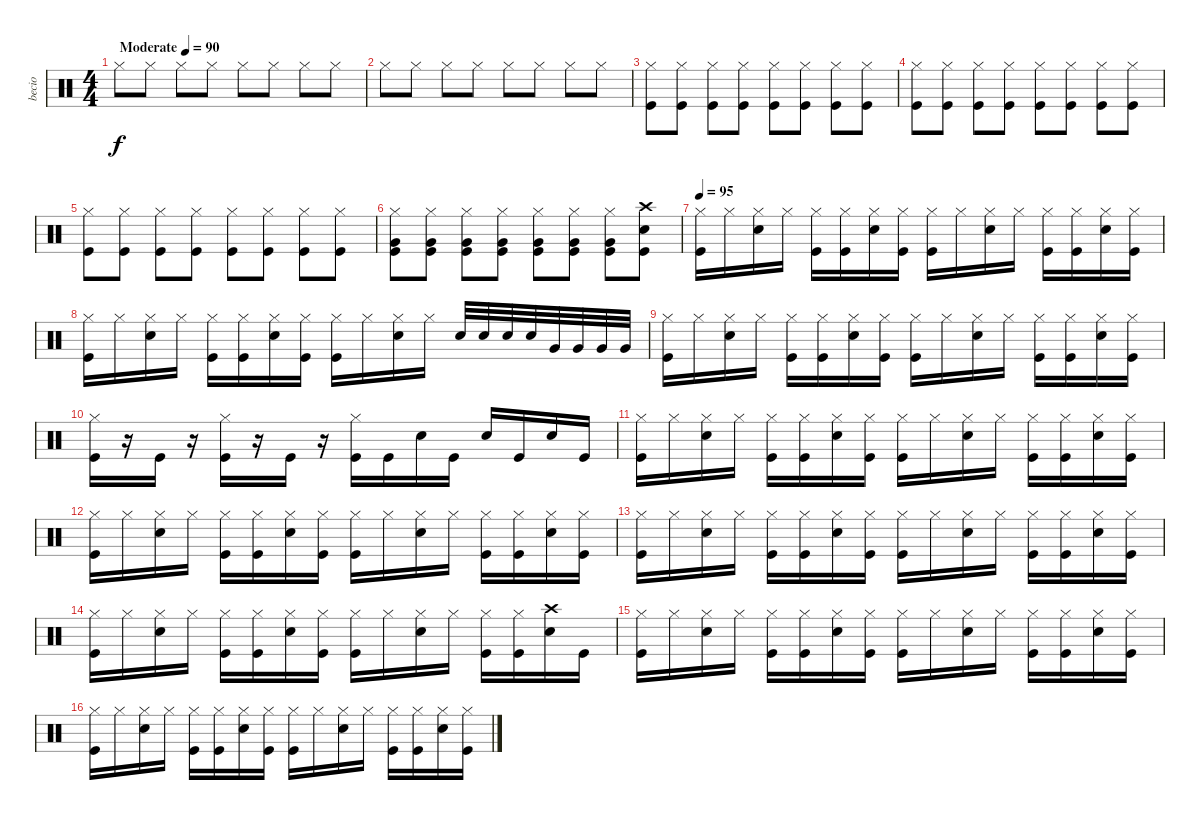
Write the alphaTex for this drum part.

\track ("becio" "becio") {instrument percussion}
\staff {score}
\articulation defaults
\ts (4 4)
\tempo (90 "Moderate")
\clef neutral
\ks c "Hi-Hat (closed)".8{dy f} "Hi-Hat (closed)".8 "Hi-Hat (closed)".8 "Hi-Hat (closed)".8 "Hi-Hat (closed)".8 "Hi-Hat (closed)".8 "Hi-Hat (closed)".8 "Hi-Hat (closed)".8
|
"Hi-Hat (closed)".8 "Hi-Hat (closed)".8 "Hi-Hat (closed)".8 "Hi-Hat (closed)".8 "Hi-Hat (closed)".8 "Hi-Hat (closed)".8 "Hi-Hat (closed)".8 "Hi-Hat (closed)".8 |
("Kick (hit)" "Hi-Hat (closed)").8 ("Kick (hit)" "Hi-Hat (closed)").8 ("Kick (hit)" "Hi-Hat (closed)").8 ("Kick (hit)" "Hi-Hat (closed)").8 ("Kick (hit)" "Hi-Hat (closed)").8 ("Kick (hit)" "Hi-Hat (closed)").8 ("Kick (hit)" "Hi-Hat (closed)").8 ("Kick (hit)" "Hi-Hat (closed)").8 |
("Kick (hit)" "Hi-Hat (closed)").8 ("Kick (hit)" "Hi-Hat (closed)").8 ("Kick (hit)" "Hi-Hat (closed)").8 ("Kick (hit)" "Hi-Hat (closed)").8 ("Kick (hit)" "Hi-Hat (closed)").8 ("Kick (hit)" "Hi-Hat (closed)").8 ("Kick (hit)" "Hi-Hat (closed)").8 ("Kick (hit)" "Hi-Hat (closed)").8 |
("Kick (hit)" "Hi-Hat (closed)").8 ("Kick (hit)" "Hi-Hat (closed)").8 ("Kick (hit)" "Hi-Hat (closed)").8 ("Kick (hit)" "Hi-Hat (closed)").8 ("Kick (hit)" "Hi-Hat (closed)").8 ("Kick (hit)" "Hi-Hat (closed)").8 ("Kick (hit)" "Hi-Hat (closed)").8 ("Kick (hit)" "Hi-Hat (closed)").8 |
("Kick (hit)" "Very Low Tom (hit)" "Hi-Hat (closed)").8 ("Kick (hit)" "Very Low Tom (hit)" "Hi-Hat (closed)").8 ("Kick (hit)" "Very Low Tom (hit)" "Hi-Hat (closed)").8 ("Kick (hit)" "Very Low Tom (hit)" "Hi-Hat (closed)").8 ("Kick (hit)" "Very Low Tom (hit)" "Hi-Hat (closed)").8 ("Kick (hit)" "Very Low Tom (hit)" "Hi-Hat (closed)").8 ("Kick (hit)" "Very Low Tom (hit)" "Hi-Hat (closed)").8 ("Kick (hit)" "Electric Snare (hit)" "Crash high (hit)").8 |
\tempo 95
("Kick (hit)" "Hi-Hat (closed)").16 "Hi-Hat (closed)".16 ("Electric Snare (hit)" "Hi-Hat (closed)").16 "Hi-Hat (closed)".16 ("Kick (hit)" "Hi-Hat (closed)").16 ("Kick (hit)" "Hi-Hat (closed)").16 ("Electric Snare (hit)" "Hi-Hat (closed)").16 ("Kick (hit)" "Hi-Hat (closed)").16 ("Kick (hit)" "Hi-Hat (closed)").16 "Hi-Hat (closed)".16 ("Electric Snare (hit)" "Hi-Hat (closed)").16 "Hi-Hat (closed)".16 ("Kick (hit)" "Hi-Hat (closed)").16 ("Kick (hit)" "Hi-Hat (closed)").16 ("Electric Snare (hit)" "Hi-Hat (closed)").16 ("Kick (hit)" "Hi-Hat (closed)").16 |
("Kick (hit)" "Hi-Hat (closed)").16 "Hi-Hat (closed)".16 ("Electric Snare (hit)" "Hi-Hat (closed)").16 "Hi-Hat (closed)".16 ("Kick (hit)" "Hi-Hat (closed)").16 ("Kick (hit)" "Hi-Hat (closed)").16 ("Electric Snare (hit)" "Hi-Hat (closed)").16 ("Kick (hit)" "Hi-Hat (closed)").16 ("Kick (hit)" "Hi-Hat (closed)").16 "Hi-Hat (closed)".16 ("Electric Snare (hit)" "Hi-Hat (closed)").16 "Hi-Hat (closed)".16 "Electric Snare (hit)".32 "Electric Snare (hit)".32 "Electric Snare (hit)".32 "Electric Snare (hit)".32 "Very Low Tom (hit)".32 "Very Low Tom (hit)".32 "Very Low Tom (hit)".32 "Very Low Tom (hit)".32 |
("Kick (hit)" "Hi-Hat (closed)").16 "Hi-Hat (closed)".16 ("Electric Snare (hit)" "Hi-Hat (closed)").16 "Hi-Hat (closed)".16 ("Kick (hit)" "Hi-Hat (closed)").16 ("Kick (hit)" "Hi-Hat (closed)").16 ("Electric Snare (hit)" "Hi-Hat (closed)").16 ("Kick (hit)" "Hi-Hat (closed)").16 ("Kick (hit)" "Hi-Hat (closed)").16 "Hi-Hat (closed)".16 ("Electric Snare (hit)" "Hi-Hat (closed)").16 "Hi-Hat (closed)".16 ("Kick (hit)" "Hi-Hat (closed)").16 ("Kick (hit)" "Hi-Hat (closed)").16 ("Electric Snare (hit)" "Hi-Hat (closed)").16 ("Kick (hit)" "Hi-Hat (closed)").16 |
("Kick (hit)" "Hi-Hat (closed)").16 r.16 "Kick (hit)".16 r.16 ("Kick (hit)" "Hi-Hat (closed)").16 r.16 "Kick (hit)".16 r.16 ("Kick (hit)" "Hi-Hat (closed)").16 "Kick (hit)".16 "Electric Snare (hit)".16 "Kick (hit)".16 "Electric Snare (hit)".16 "Kick (hit)".16 "Electric Snare (hit)".16 "Kick (hit)".16 |
("Kick (hit)" "Hi-Hat (closed)").16 "Hi-Hat (closed)".16 ("Electric Snare (hit)" "Hi-Hat (closed)").16 "Hi-Hat (closed)".16 ("Kick (hit)" "Hi-Hat (closed)").16 ("Kick (hit)" "Hi-Hat (closed)").16 ("Electric Snare (hit)" "Hi-Hat (closed)").16 ("Kick (hit)" "Hi-Hat (closed)").16 ("Kick (hit)" "Hi-Hat (closed)").16 "Hi-Hat (closed)".16 ("Electric Snare (hit)" "Hi-Hat (closed)").16 "Hi-Hat (closed)".16 ("Kick (hit)" "Hi-Hat (closed)").16 ("Kick (hit)" "Hi-Hat (closed)").16 ("Electric Snare (hit)" "Hi-Hat (closed)").16 ("Kick (hit)" "Hi-Hat (closed)").16 |
("Kick (hit)" "Hi-Hat (closed)").16 "Hi-Hat (closed)".16 ("Electric Snare (hit)" "Hi-Hat (closed)").16 "Hi-Hat (closed)".16 ("Kick (hit)" "Hi-Hat (closed)").16 ("Kick (hit)" "Hi-Hat (closed)").16 ("Electric Snare (hit)" "Hi-Hat (closed)").16 ("Kick (hit)" "Hi-Hat (closed)").16 ("Kick (hit)" "Hi-Hat (closed)").16 "Hi-Hat (closed)".16 ("Electric Snare (hit)" "Hi-Hat (closed)").16 "Hi-Hat (closed)".16 ("Kick (hit)" "Hi-Hat (closed)").16 ("Kick (hit)" "Hi-Hat (closed)").16 ("Electric Snare (hit)" "Hi-Hat (closed)").16 ("Kick (hit)" "Hi-Hat (closed)").16 |
("Kick (hit)" "Hi-Hat (closed)").16 "Hi-Hat (closed)".16 ("Electric Snare (hit)" "Hi-Hat (closed)").16 "Hi-Hat (closed)".16 ("Kick (hit)" "Hi-Hat (closed)").16 ("Kick (hit)" "Hi-Hat (closed)").16 ("Electric Snare (hit)" "Hi-Hat (closed)").16 ("Kick (hit)" "Hi-Hat (closed)").16 ("Kick (hit)" "Hi-Hat (closed)").16 "Hi-Hat (closed)".16 ("Electric Snare (hit)" "Hi-Hat (closed)").16 "Hi-Hat (closed)".16 ("Kick (hit)" "Hi-Hat (closed)").16 ("Kick (hit)" "Hi-Hat (closed)").16 ("Electric Snare (hit)" "Hi-Hat (closed)").16 ("Kick (hit)" "Hi-Hat (closed)").16 |
("Kick (hit)" "Hi-Hat (closed)").16 "Hi-Hat (closed)".16 ("Electric Snare (hit)" "Hi-Hat (closed)").16 "Hi-Hat (closed)".16 ("Kick (hit)" "Hi-Hat (closed)").16 ("Kick (hit)" "Hi-Hat (closed)").16 ("Electric Snare (hit)" "Hi-Hat (closed)").16 ("Kick (hit)" "Hi-Hat (closed)").16 ("Kick (hit)" "Hi-Hat (closed)").16 "Hi-Hat (closed)".16 ("Electric Snare (hit)" "Hi-Hat (closed)").16 "Hi-Hat (closed)".16 ("Kick (hit)" "Hi-Hat (closed)").16 ("Kick (hit)" "Hi-Hat (closed)").16 ("Electric Snare (hit)" "Crash high (hit)").16 "Kick (hit)".16 |
("Kick (hit)" "Hi-Hat (closed)").16 "Hi-Hat (closed)".16 ("Electric Snare (hit)" "Hi-Hat (closed)").16 "Hi-Hat (closed)".16 ("Kick (hit)" "Hi-Hat (closed)").16 ("Kick (hit)" "Hi-Hat (closed)").16 ("Electric Snare (hit)" "Hi-Hat (closed)").16 ("Kick (hit)" "Hi-Hat (closed)").16 ("Kick (hit)" "Hi-Hat (closed)").16 "Hi-Hat (closed)".16 ("Electric Snare (hit)" "Hi-Hat (closed)").16 "Hi-Hat (closed)".16 ("Kick (hit)" "Hi-Hat (closed)").16 ("Kick (hit)" "Hi-Hat (closed)").16 ("Electric Snare (hit)" "Hi-Hat (closed)").16 ("Kick (hit)" "Hi-Hat (closed)").16 |
("Kick (hit)" "Hi-Hat (closed)").16 "Hi-Hat (closed)".16 ("Electric Snare (hit)" "Hi-Hat (closed)").16 "Hi-Hat (closed)".16 ("Kick (hit)" "Hi-Hat (closed)").16 ("Kick (hit)" "Hi-Hat (closed)").16 ("Electric Snare (hit)" "Hi-Hat (closed)").16 ("Kick (hit)" "Hi-Hat (closed)").16 ("Kick (hit)" "Hi-Hat (closed)").16 "Hi-Hat (closed)".16 ("Electric Snare (hit)" "Hi-Hat (closed)").16 "Hi-Hat (closed)".16 ("Kick (hit)" "Hi-Hat (closed)").16 ("Kick (hit)" "Hi-Hat (closed)").16 ("Electric Snare (hit)" "Hi-Hat (closed)").16 ("Kick (hit)" "Hi-Hat (closed)").16
